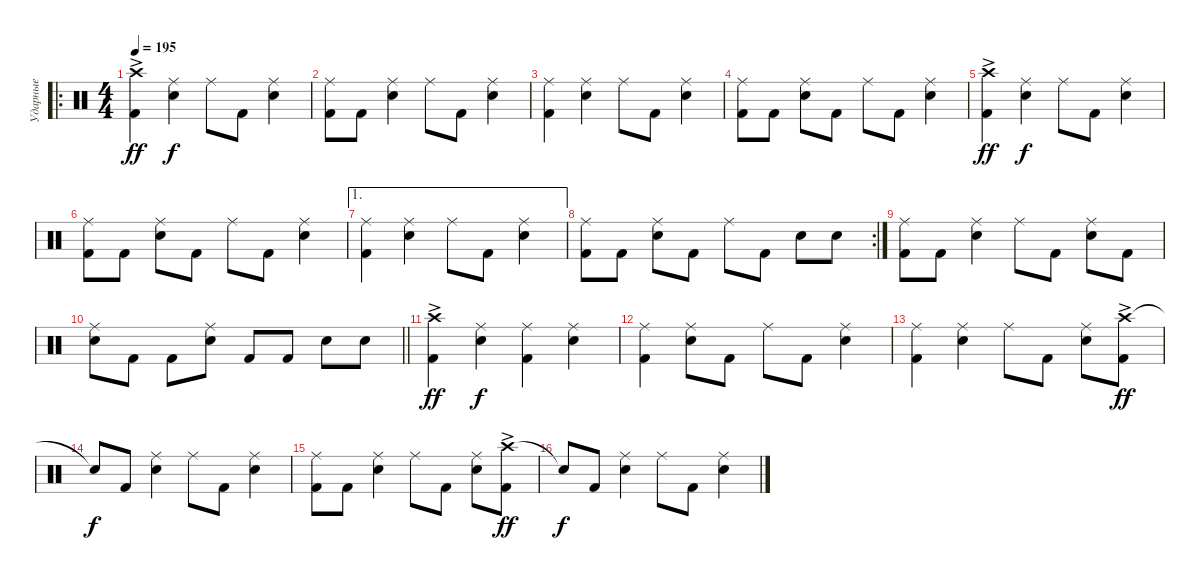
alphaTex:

\track ("Ударные" "Ударные") {instrument percussion}
\staff {score}
\articulation defaults
\ro
\ts (4 4)
\tempo 195
\clef neutral
\ks c
("Crash high (hit)"{ac} "Kick (hit) 2").4{dy ff} ("Ride (middle)" "Snare (hit) 2").4{dy f} "Ride (middle)".8 "Kick (hit) 2".8 ("Ride (middle)" "Snare (hit) 2").4 |
("Ride (middle)" "Kick (hit) 2").8 "Kick (hit) 2".8 ("Ride (middle)" "Snare (hit) 2").4 "Ride (middle)".8 "Kick (hit) 2".8 ("Ride (middle)" "Snare (hit) 2").4 |
("Ride (middle)" "Kick (hit) 2").4 ("Ride (middle)" "Snare (hit) 2").4 "Ride (middle)".8 "Kick (hit) 2".8 ("Ride (middle)" "Snare (hit) 2").4 |
("Ride (middle)" "Kick (hit) 2").8 "Kick (hit) 2".8 ("Ride (middle)" "Snare (hit) 2").8 "Kick (hit) 2".8 "Ride (middle)".8 "Kick (hit) 2".8 ("Ride (middle)" "Snare (hit) 2").4 |
("Crash high (hit)"{ac} "Kick (hit) 2").4{dy ff} ("Ride (middle)" "Snare (hit) 2").4{dy f} "Ride (middle)".8 "Kick (hit) 2".8 ("Ride (middle)" "Snare (hit) 2").4 |
("Ride (middle)" "Kick (hit) 2").8 "Kick (hit) 2".8 ("Ride (middle)" "Snare (hit) 2").8 "Kick (hit) 2".8 "Ride (middle)".8 "Kick (hit) 2".8 ("Ride (middle)" "Snare (hit) 2").4 |
\ae 1
("Ride (middle)" "Kick (hit) 2").4 ("Ride (middle)" "Snare (hit) 2").4 "Ride (middle)".8 "Kick (hit) 2".8 ("Ride (middle)" "Snare (hit) 2").4 |
\rc 2
("Ride (middle)" "Kick (hit) 2").8 "Kick (hit) 2".8 ("Ride (middle)" "Snare (hit) 2").8 "Kick (hit) 2".8 "Ride (middle)".8 "Kick (hit) 2".8 "Snare (hit) 2".8 "Snare (hit) 2".8 |
("Ride (middle)" "Kick (hit) 2").8 "Kick (hit) 2".8 ("Ride (middle)" "Snare (hit) 2").4 "Ride (middle)".8 "Kick (hit) 2".8 ("Ride (middle)" "Snare (hit) 2").8 "Kick (hit) 2".8 |
\barLineRight lightlight
("Ride (middle)" "Snare (hit) 2").8 "Kick (hit) 2".8 "Kick (hit) 2".8 ("Ride (middle)" "Snare (hit) 2").8 "Kick (hit) 2".8 "Kick (hit) 2".8 "Snare (hit) 2".8 "Snare (hit) 2".8 |
("Crash high (hit)"{ac} "Kick (hit) 2").4{dy ff} ("Ride (middle)" "Snare (hit) 2").4{dy f} ("Ride (middle)" "Kick (hit) 2").4 ("Ride (middle)" "Snare (hit) 2").4 |
("Ride (middle)" "Kick (hit) 2").4 ("Ride (middle)" "Snare (hit) 2").8 "Kick (hit) 2".8 "Ride (middle)".8 "Kick (hit) 2".8 ("Ride (middle)" "Snare (hit) 2").4 |
("Ride (middle)" "Kick (hit) 2").4 ("Ride (middle)" "Snare (hit) 2").4 "Ride (middle)".8 "Kick (hit) 2".8 ("Ride (middle)" "Snare (hit) 2").8 ("Crash high (hit)"{ac} "Kick (hit) 2").8{dy ff} |
"Snare (hit)"{t}.8{dy f} "Kick (hit) 2".8 ("Ride (middle)" "Snare (hit) 2").4 "Ride (middle)".8 "Kick (hit) 2".8 ("Ride (middle)" "Snare (hit) 2").4 |
("Ride (middle)" "Kick (hit) 2").8 "Kick (hit) 2".8 ("Ride (middle)" "Snare (hit) 2").4 "Ride (middle)".8 "Kick (hit) 2".8 ("Ride (middle)" "Snare (hit) 2").8 ("Crash high (hit)"{ac} "Kick (hit) 2").8{dy ff} |
"Snare (hit)"{t}.8{dy f} "Kick (hit) 2".8 ("Ride (middle)" "Snare (hit) 2").4 "Ride (middle)".8 "Kick (hit) 2".8 ("Ride (middle)" "Snare (hit) 2").4
